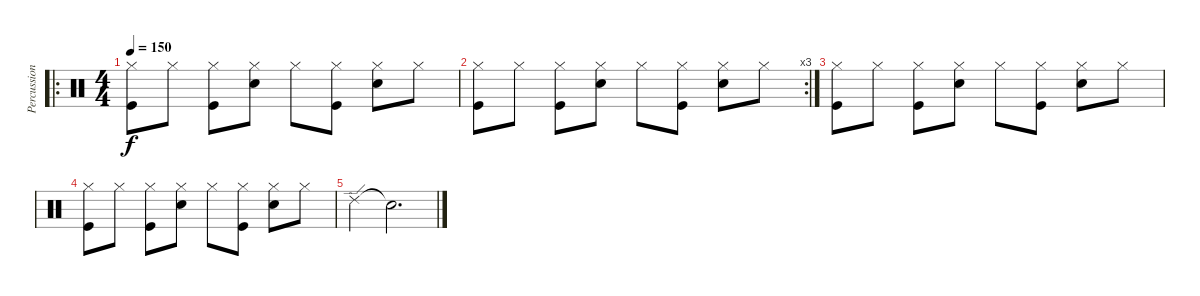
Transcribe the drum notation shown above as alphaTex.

\track ("Percussions" "Percussion") {instrument percussion}
\staff {score}
\articulation defaults
\ro
\ts (4 4)
\tempo 150
\clef neutral
\ks c
("Hi-Hat (closed)" "Kick (hit)").8{dy f} "Hi-Hat (closed)".8 ("Hi-Hat (closed)" "Kick (hit)").8 ("Hi-Hat (closed)" "Electric Snare (hit)").8 "Hi-Hat (closed)".8 ("Hi-Hat (closed)" "Kick (hit)").8 ("Hi-Hat (closed)" "Electric Snare (hit)").8 "Hi-Hat (closed)".8 |
\rc 3
("Hi-Hat (closed)" "Kick (hit)").8 "Hi-Hat (closed)".8 ("Hi-Hat (closed)" "Kick (hit)").8 ("Hi-Hat (closed)" "Electric Snare (hit)").8 "Hi-Hat (closed)".8 ("Hi-Hat (closed)" "Kick (hit)").8 ("Hi-Hat (closed)" "Electric Snare (hit)").8 "Hi-Hat (closed)".8 |
("Hi-Hat (closed)" "Kick (hit)").8 "Hi-Hat (closed)".8 ("Hi-Hat (closed)" "Kick (hit)").8 ("Hi-Hat (closed)" "Electric Snare (hit)").8 "Hi-Hat (closed)".8 ("Hi-Hat (closed)" "Kick (hit)").8 ("Hi-Hat (closed)" "Electric Snare (hit)").8 "Hi-Hat (closed)".8 |
("Hi-Hat (closed)" "Kick (hit)").8 "Hi-Hat (closed)".8 ("Hi-Hat (closed)" "Kick (hit)").8 ("Hi-Hat (closed)" "Electric Snare (hit)").8 "Hi-Hat (closed)".8 ("Hi-Hat (closed)" "Kick (hit)").8 ("Hi-Hat (closed)" "Electric Snare (hit)").8 "Hi-Hat (closed)".8 |
"Ride (edge) 2".4 "Snare (hit)"{t}.2{d}
